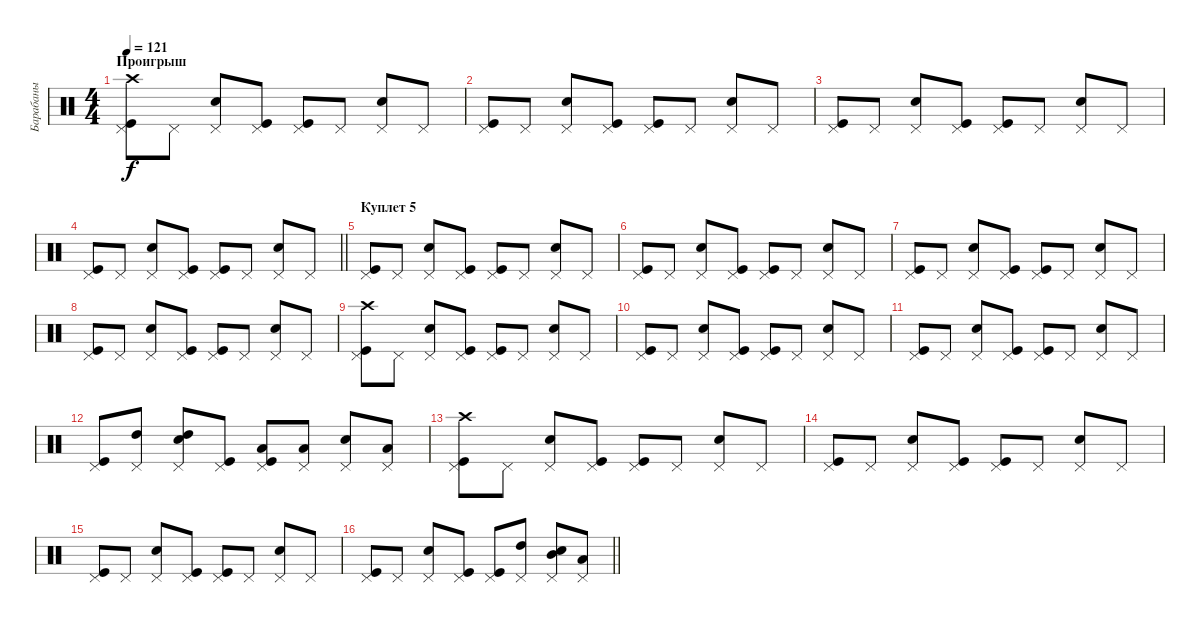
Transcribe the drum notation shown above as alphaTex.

\track ("Барабаны" "Барабаны") {instrument percussion}
\staff {score}
\articulation defaults
\ts (4 4)
\section ("" "Проигрыш")
\tempo 121
\clef neutral
\ks c
("Kick (hit)" "Pedal Hi-Hat (hit)" "Crash high (hit)").8{dy f} "Pedal Hi-Hat (hit)".8 ("Snare (hit) 2" "Pedal Hi-Hat (hit)").8 ("Kick (hit)" "Pedal Hi-Hat (hit)").8 ("Kick (hit)" "Pedal Hi-Hat (hit)").8 "Pedal Hi-Hat (hit)".8 ("Snare (hit) 2" "Pedal Hi-Hat (hit)").8 "Pedal Hi-Hat (hit)".8 |
("Kick (hit)" "Pedal Hi-Hat (hit)").8 "Pedal Hi-Hat (hit)".8 ("Snare (hit) 2" "Pedal Hi-Hat (hit)").8 ("Kick (hit)" "Pedal Hi-Hat (hit)").8 ("Kick (hit)" "Pedal Hi-Hat (hit)").8 "Pedal Hi-Hat (hit)".8 ("Snare (hit) 2" "Pedal Hi-Hat (hit)").8 "Pedal Hi-Hat (hit)".8 |
("Kick (hit)" "Pedal Hi-Hat (hit)").8 "Pedal Hi-Hat (hit)".8 ("Snare (hit) 2" "Pedal Hi-Hat (hit)").8 ("Kick (hit)" "Pedal Hi-Hat (hit)").8 ("Kick (hit)" "Pedal Hi-Hat (hit)").8 "Pedal Hi-Hat (hit)".8 ("Snare (hit) 2" "Pedal Hi-Hat (hit)").8 "Pedal Hi-Hat (hit)".8 |
\barLineRight lightlight
("Kick (hit)" "Pedal Hi-Hat (hit)").8 "Pedal Hi-Hat (hit)".8 ("Snare (hit) 2" "Pedal Hi-Hat (hit)").8 ("Kick (hit)" "Pedal Hi-Hat (hit)").8 ("Kick (hit)" "Pedal Hi-Hat (hit)").8 "Pedal Hi-Hat (hit)".8 ("Snare (hit) 2" "Pedal Hi-Hat (hit)").8 "Pedal Hi-Hat (hit)".8 |
\section ("" "Куплет 5")
("Kick (hit)" "Pedal Hi-Hat (hit)").8 "Pedal Hi-Hat (hit)".8 ("Snare (hit) 2" "Pedal Hi-Hat (hit)").8 ("Kick (hit)" "Pedal Hi-Hat (hit)").8 ("Kick (hit)" "Pedal Hi-Hat (hit)").8 "Pedal Hi-Hat (hit)".8 ("Snare (hit) 2" "Pedal Hi-Hat (hit)").8 "Pedal Hi-Hat (hit)".8 |
("Kick (hit)" "Pedal Hi-Hat (hit)").8 "Pedal Hi-Hat (hit)".8 ("Snare (hit) 2" "Pedal Hi-Hat (hit)").8 ("Kick (hit)" "Pedal Hi-Hat (hit)").8 ("Kick (hit)" "Pedal Hi-Hat (hit)").8 "Pedal Hi-Hat (hit)".8 ("Snare (hit) 2" "Pedal Hi-Hat (hit)").8 "Pedal Hi-Hat (hit)".8 |
("Kick (hit)" "Pedal Hi-Hat (hit)").8 "Pedal Hi-Hat (hit)".8 ("Snare (hit) 2" "Pedal Hi-Hat (hit)").8 ("Kick (hit)" "Pedal Hi-Hat (hit)").8 ("Kick (hit)" "Pedal Hi-Hat (hit)").8 "Pedal Hi-Hat (hit)".8 ("Snare (hit) 2" "Pedal Hi-Hat (hit)").8 "Pedal Hi-Hat (hit)".8 |
("Kick (hit)" "Pedal Hi-Hat (hit)").8 "Pedal Hi-Hat (hit)".8 ("Snare (hit) 2" "Pedal Hi-Hat (hit)").8 ("Kick (hit)" "Pedal Hi-Hat (hit)").8 ("Kick (hit)" "Pedal Hi-Hat (hit)").8 "Pedal Hi-Hat (hit)".8 ("Snare (hit) 2" "Pedal Hi-Hat (hit)").8 "Pedal Hi-Hat (hit)".8 |
("Kick (hit)" "Pedal Hi-Hat (hit)" "Crash high (hit)").8 "Pedal Hi-Hat (hit)".8 ("Snare (hit) 2" "Pedal Hi-Hat (hit)").8 ("Kick (hit)" "Pedal Hi-Hat (hit)").8 ("Kick (hit)" "Pedal Hi-Hat (hit)").8 "Pedal Hi-Hat (hit)".8 ("Snare (hit) 2" "Pedal Hi-Hat (hit)").8 "Pedal Hi-Hat (hit)".8 |
("Kick (hit)" "Pedal Hi-Hat (hit)").8 "Pedal Hi-Hat (hit)".8 ("Snare (hit) 2" "Pedal Hi-Hat (hit)").8 ("Kick (hit)" "Pedal Hi-Hat (hit)").8 ("Kick (hit)" "Pedal Hi-Hat (hit)").8 "Pedal Hi-Hat (hit)".8 ("Snare (hit) 2" "Pedal Hi-Hat (hit)").8 "Pedal Hi-Hat (hit)".8 |
("Kick (hit)" "Pedal Hi-Hat (hit)").8 "Pedal Hi-Hat (hit)".8 ("Snare (hit) 2" "Pedal Hi-Hat (hit)").8 ("Kick (hit)" "Pedal Hi-Hat (hit)").8 ("Kick (hit)" "Pedal Hi-Hat (hit)").8 "Pedal Hi-Hat (hit)".8 ("Snare (hit) 2" "Pedal Hi-Hat (hit)").8 "Pedal Hi-Hat (hit)".8 |
("Kick (hit)" "Pedal Hi-Hat (hit)").8 ("Pedal Hi-Hat (hit)" "High Tom (hit)").8 ("Snare (hit) 2" "Pedal Hi-Hat (hit)" "High Tom (hit)").8 ("Kick (hit)" "Pedal Hi-Hat (hit)").8 ("Kick (hit)" "Pedal Hi-Hat (hit)" "Low Tom (hit)").8 ("Pedal Hi-Hat (hit)" "Low Tom (hit)").8 ("Snare (hit) 2" "Pedal Hi-Hat (hit)").8 ("Pedal Hi-Hat (hit)" "Low Tom (hit)").8 |
("Kick (hit)" "Pedal Hi-Hat (hit)" "Crash high (hit)").8 "Pedal Hi-Hat (hit)".8 ("Snare (hit) 2" "Pedal Hi-Hat (hit)").8 ("Kick (hit)" "Pedal Hi-Hat (hit)").8 ("Kick (hit)" "Pedal Hi-Hat (hit)").8 "Pedal Hi-Hat (hit)".8 ("Snare (hit) 2" "Pedal Hi-Hat (hit)").8 "Pedal Hi-Hat (hit)".8 |
("Kick (hit)" "Pedal Hi-Hat (hit)").8 "Pedal Hi-Hat (hit)".8 ("Snare (hit) 2" "Pedal Hi-Hat (hit)").8 ("Kick (hit)" "Pedal Hi-Hat (hit)").8 ("Kick (hit)" "Pedal Hi-Hat (hit)").8 "Pedal Hi-Hat (hit)".8 ("Snare (hit) 2" "Pedal Hi-Hat (hit)").8 "Pedal Hi-Hat (hit)".8 |
("Kick (hit)" "Pedal Hi-Hat (hit)").8 "Pedal Hi-Hat (hit)".8 ("Snare (hit) 2" "Pedal Hi-Hat (hit)").8 ("Kick (hit)" "Pedal Hi-Hat (hit)").8 ("Kick (hit)" "Pedal Hi-Hat (hit)").8 "Pedal Hi-Hat (hit)".8 ("Snare (hit) 2" "Pedal Hi-Hat (hit)").8 "Pedal Hi-Hat (hit)".8 |
\barLineRight lightlight
("Kick (hit)" "Pedal Hi-Hat (hit)").8 "Pedal Hi-Hat (hit)".8 ("Snare (hit) 2" "Pedal Hi-Hat (hit)").8 ("Kick (hit)" "Pedal Hi-Hat (hit)").8 ("Kick (hit)" "Pedal Hi-Hat (hit)").8 ("Pedal Hi-Hat (hit)" "High Tom (hit)").8 ("Snare (hit) 2" "Pedal Hi-Hat (hit)" "Mid Tom (hit)").8 ("Pedal Hi-Hat (hit)" "Low Floor Tom (hit)").8
